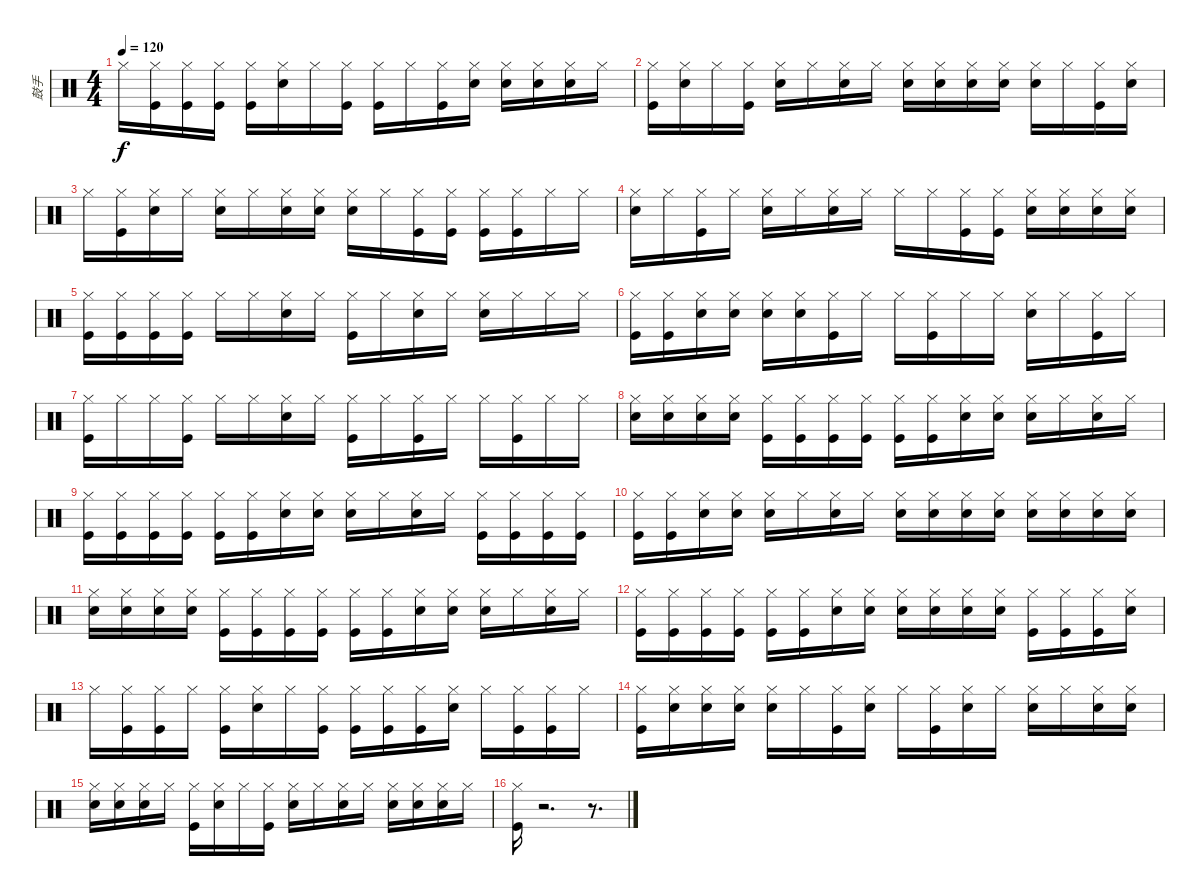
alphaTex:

\track ("鼓手" "鼓手") {instrument percussion}
\staff {score}
\articulation defaults
\ts (4 4)
\tempo 120
\clef neutral
\ks c "Hi-Hat (closed)".16{dy f}
("Kick (hit)" "Hi-Hat (closed)").16 ("Hi-Hat (closed)" "Kick (hit)").16 ("Kick (hit)" "Hi-Hat (closed)").16 ("Kick (hit)" "Hi-Hat (closed)").16 ("Snare (hit) 2" "Hi-Hat (closed)").16 "Hi-Hat (closed)".16 ("Kick (hit)" "Hi-Hat (closed)").16 ("Kick (hit)" "Hi-Hat (closed)").16 "Hi-Hat (closed)".16 ("Kick (hit)" "Hi-Hat (closed)").16 ("Hi-Hat (closed)" "Snare (hit) 2").16 ("Hi-Hat (closed)" "Snare (hit) 2").16 ("Hi-Hat (closed)" "Snare (hit) 2").16 ("Snare (hit) 2" "Hi-Hat (closed)").16 "Hi-Hat (closed)".16 |
("Kick (hit)" "Hi-Hat (closed)").16 ("Snare (hit) 2" "Hi-Hat (closed)").16 "Hi-Hat (closed)".16 ("Kick (hit)" "Hi-Hat (closed)").16 ("Snare (hit) 2" "Hi-Hat (closed)").16 "Hi-Hat (closed)".16 ("Snare (hit) 2" "Hi-Hat (closed)").16 "Hi-Hat (closed)".16 ("Snare (hit) 2" "Hi-Hat (closed)").16 ("Snare (hit) 2" "Hi-Hat (closed)").16 ("Snare (hit) 2" "Hi-Hat (closed)").16 ("Snare (hit) 2" "Hi-Hat (closed)").16 ("Snare (hit) 2" "Hi-Hat (closed)").16 "Hi-Hat (closed)".16 ("Kick (hit)" "Hi-Hat (closed)").16 ("Snare (hit) 2" "Hi-Hat (closed)").16 |
"Hi-Hat (closed)".16 ("Kick (hit)" "Hi-Hat (closed)").16 ("Snare (hit) 2" "Hi-Hat (closed)").16 "Hi-Hat (closed)".16 ("Snare (hit) 2" "Hi-Hat (closed)").16 "Hi-Hat (closed)".16 ("Snare (hit) 2" "Hi-Hat (closed)").16 ("Snare (hit) 2" "Hi-Hat (closed)").16 ("Snare (hit) 2" "Hi-Hat (closed)").16 "Hi-Hat (closed)".16 ("Kick (hit)" "Hi-Hat (closed)").16 ("Kick (hit)" "Hi-Hat (closed)").16 ("Kick (hit)" "Hi-Hat (closed)").16 ("Kick (hit)" "Hi-Hat (closed)").16 "Hi-Hat (closed)".16 "Hi-Hat (closed)".16 |
("Snare (hit) 2" "Hi-Hat (closed)").16 "Hi-Hat (closed)".16 ("Kick (hit)" "Hi-Hat (closed)").16 "Hi-Hat (closed)".16 ("Snare (hit) 2" "Hi-Hat (closed)").16 "Hi-Hat (closed)".16 ("Snare (hit) 2" "Hi-Hat (closed)").16 "Hi-Hat (closed)".16 "Hi-Hat (closed)".16 "Hi-Hat (closed)".16 ("Kick (hit)" "Hi-Hat (closed)").16 ("Kick (hit)" "Hi-Hat (closed)").16 ("Snare (hit) 2" "Hi-Hat (closed)").16 ("Snare (hit) 2" "Hi-Hat (closed)").16 ("Snare (hit) 2" "Hi-Hat (closed)").16 ("Snare (hit) 2" "Hi-Hat (closed)").16 |
("Kick (hit)" "Hi-Hat (closed)").16 ("Kick (hit)" "Hi-Hat (closed)").16 ("Kick (hit)" "Hi-Hat (closed)").16 ("Kick (hit)" "Hi-Hat (closed)").16 "Hi-Hat (closed)".16 "Hi-Hat (closed)".16 ("Snare (hit) 2" "Hi-Hat (closed)").16 "Hi-Hat (closed)".16 ("Kick (hit)" "Hi-Hat (closed)").16 "Hi-Hat (closed)".16 ("Snare (hit) 2" "Hi-Hat (closed)").16 "Hi-Hat (closed)".16 ("Snare (hit) 2" "Hi-Hat (closed)").16 "Hi-Hat (closed)".16 "Hi-Hat (closed)".16 "Hi-Hat (closed)".16 |
("Kick (hit)" "Hi-Hat (closed)").16 ("Kick (hit)" "Hi-Hat (closed)").16 ("Snare (hit) 2" "Hi-Hat (closed)").16 ("Snare (hit) 2" "Hi-Hat (closed)").16 ("Snare (hit) 2" "Hi-Hat (closed)").16 ("Snare (hit) 2" "Hi-Hat (closed)").16 ("Hi-Hat (closed)" "Kick (hit)").16 "Hi-Hat (closed)".16 "Hi-Hat (closed)".16 ("Kick (hit)" "Hi-Hat (closed)").16 "Hi-Hat (closed)".16 "Hi-Hat (closed)".16 ("Snare (hit) 2" "Hi-Hat (closed)").16 "Hi-Hat (closed)".16 ("Kick (hit)" "Hi-Hat (closed)").16 "Hi-Hat (closed)".16 |
("Hi-Hat (closed)" "Kick (hit)").16 "Hi-Hat (closed)".16 "Hi-Hat (closed)".16 ("Kick (hit)" "Hi-Hat (closed)").16 "Hi-Hat (closed)".16 "Hi-Hat (closed)".16 ("Snare (hit) 2" "Hi-Hat (closed)").16 "Hi-Hat (closed)".16 ("Kick (hit)" "Hi-Hat (closed)").16 "Hi-Hat (closed)".16 ("Hi-Hat (closed)" "Kick (hit)").16 "Hi-Hat (closed)".16 "Hi-Hat (closed)".16 ("Kick (hit)" "Hi-Hat (closed)").16 "Hi-Hat (closed)".16 "Hi-Hat (closed)".16 |
("Hi-Hat (closed)" "Snare (hit) 2").16 ("Hi-Hat (closed)" "Snare (hit) 2").16 ("Hi-Hat (closed)" "Snare (hit) 2").16 ("Hi-Hat (closed)" "Snare (hit) 2").16 ("Hi-Hat (closed)" "Kick (hit)").16 ("Kick (hit)" "Hi-Hat (closed)").16 ("Kick (hit)" "Hi-Hat (closed)").16 ("Kick (hit)" "Hi-Hat (closed)").16 ("Kick (hit)" "Hi-Hat (closed)").16 ("Kick (hit)" "Hi-Hat (closed)").16 ("Snare (hit) 2" "Hi-Hat (closed)").16 ("Snare (hit) 2" "Hi-Hat (closed)").16 ("Snare (hit) 2" "Hi-Hat (closed)").16 "Hi-Hat (closed)".16 ("Snare (hit) 2" "Hi-Hat (closed)").16 "Hi-Hat (closed)".16 |
("Hi-Hat (closed)" "Kick (hit)").16 ("Kick (hit)" "Hi-Hat (closed)").16 ("Kick (hit)" "Hi-Hat (closed)").16 ("Kick (hit)" "Hi-Hat (closed)").16 ("Kick (hit)" "Hi-Hat (closed)").16 ("Kick (hit)" "Hi-Hat (closed)").16 ("Snare (hit) 2" "Hi-Hat (closed)").16 ("Snare (hit) 2" "Hi-Hat (closed)").16 ("Snare (hit) 2" "Hi-Hat (closed)").16 "Hi-Hat (closed)".16 ("Snare (hit) 2" "Hi-Hat (closed)").16 "Hi-Hat (closed)".16 ("Hi-Hat (closed)" "Kick (hit)").16 ("Kick (hit)" "Hi-Hat (closed)").16 ("Kick (hit)" "Hi-Hat (closed)").16 ("Kick (hit)" "Hi-Hat (closed)").16 |
("Kick (hit)" "Hi-Hat (closed)").16 ("Kick (hit)" "Hi-Hat (closed)").16 ("Snare (hit) 2" "Hi-Hat (closed)").16 ("Snare (hit) 2" "Hi-Hat (closed)").16 ("Snare (hit) 2" "Hi-Hat (closed)").16 "Hi-Hat (closed)".16 ("Snare (hit) 2" "Hi-Hat (closed)").16 "Hi-Hat (closed)".16 ("Hi-Hat (closed)" "Snare (hit) 2").16 ("Hi-Hat (closed)" "Snare (hit) 2").16 ("Hi-Hat (closed)" "Snare (hit) 2").16 ("Hi-Hat (closed)" "Snare (hit) 2").16 ("Hi-Hat (closed)" "Snare (hit) 2").16 ("Hi-Hat (closed)" "Snare (hit) 2").16 ("Hi-Hat (closed)" "Snare (hit) 2").16 ("Hi-Hat (closed)" "Snare (hit) 2").16 |
("Hi-Hat (closed)" "Snare (hit) 2").16 ("Hi-Hat (closed)" "Snare (hit) 2").16 ("Hi-Hat (closed)" "Snare (hit) 2").16 ("Hi-Hat (closed)" "Snare (hit) 2").16 ("Hi-Hat (closed)" "Kick (hit)").16 ("Kick (hit)" "Hi-Hat (closed)").16 ("Kick (hit)" "Hi-Hat (closed)").16 ("Kick (hit)" "Hi-Hat (closed)").16 ("Kick (hit)" "Hi-Hat (closed)").16 ("Kick (hit)" "Hi-Hat (closed)").16 ("Snare (hit) 2" "Hi-Hat (closed)").16 ("Snare (hit) 2" "Hi-Hat (closed)").16 ("Snare (hit) 2" "Hi-Hat (closed)").16 "Hi-Hat (closed)".16 ("Snare (hit) 2" "Hi-Hat (closed)").16 "Hi-Hat (closed)".16 |
("Hi-Hat (closed)" "Kick (hit)").16 ("Kick (hit)" "Hi-Hat (closed)").16 ("Kick (hit)" "Hi-Hat (closed)").16 ("Kick (hit)" "Hi-Hat (closed)").16 ("Kick (hit)" "Hi-Hat (closed)").16 ("Kick (hit)" "Hi-Hat (closed)").16 ("Hi-Hat (closed)" "Snare (hit) 2").16 ("Hi-Hat (closed)" "Snare (hit) 2").16 ("Hi-Hat (closed)" "Snare (hit) 2").16 ("Hi-Hat (closed)" "Snare (hit) 2").16 ("Hi-Hat (closed)" "Snare (hit) 2").16 ("Hi-Hat (closed)" "Snare (hit) 2").16 ("Hi-Hat (closed)" "Kick (hit)").16 ("Kick (hit)" "Hi-Hat (closed)").16 ("Kick (hit)" "Hi-Hat (closed)").16 ("Snare (hit) 2" "Hi-Hat (closed)").16 |
"Hi-Hat (closed)".16 ("Kick (hit)" "Hi-Hat (closed)").16 ("Kick (hit)" "Hi-Hat (closed)").16 "Hi-Hat (closed)".16 ("Kick (hit)" "Hi-Hat (closed)").16 ("Snare (hit) 2" "Hi-Hat (closed)").16 "Hi-Hat (closed)".16 ("Kick (hit)" "Hi-Hat (closed)").16 ("Hi-Hat (closed)" "Kick (hit)").16 ("Kick (hit)" "Hi-Hat (closed)").16 ("Kick (hit)" "Hi-Hat (closed)").16 ("Snare (hit) 2" "Hi-Hat (closed)").16 "Hi-Hat (closed)".16 ("Kick (hit)" "Hi-Hat (closed)").16 ("Kick (hit)" "Hi-Hat (closed)").16 "Hi-Hat (closed)".16 |
("Kick (hit)" "Hi-Hat (closed)").16 ("Hi-Hat (closed)" "Snare (hit) 2").16 ("Hi-Hat (closed)" "Snare (hit) 2").16 ("Hi-Hat (closed)" "Snare (hit) 2").16 ("Snare (hit) 2" "Hi-Hat (closed)").16 "Hi-Hat (closed)".16 ("Kick (hit)" "Hi-Hat (closed)").16 ("Snare (hit) 2" "Hi-Hat (closed)").16 "Hi-Hat (closed)".16 ("Kick (hit)" "Hi-Hat (closed)").16 ("Snare (hit) 2" "Hi-Hat (closed)").16 "Hi-Hat (closed)".16 ("Snare (hit) 2" "Hi-Hat (closed)").16 "Hi-Hat (closed)".16 ("Snare (hit) 2" "Hi-Hat (closed)").16 ("Snare (hit) 2" "Hi-Hat (closed)").16 |
("Snare (hit) 2" "Hi-Hat (closed)").16 ("Snare (hit) 2" "Hi-Hat (closed)").16 ("Snare (hit) 2" "Hi-Hat (closed)").16 "Hi-Hat (closed)".16 ("Kick (hit)" "Hi-Hat (closed)").16 ("Snare (hit) 2" "Hi-Hat (closed)").16 "Hi-Hat (closed)".16 ("Kick (hit)" "Hi-Hat (closed)").16 ("Snare (hit) 2" "Hi-Hat (closed)").16 "Hi-Hat (closed)".16 ("Snare (hit) 2" "Hi-Hat (closed)").16 "Hi-Hat (closed)".16 ("Snare (hit) 2" "Hi-Hat (closed)").16 ("Snare (hit) 2" "Hi-Hat (closed)").16 ("Snare (hit) 2" "Hi-Hat (closed)").16 "Hi-Hat (closed)".16 |
("Hi-Hat (closed)" "Kick (hit)").16 r.2{d} r.8{d}
